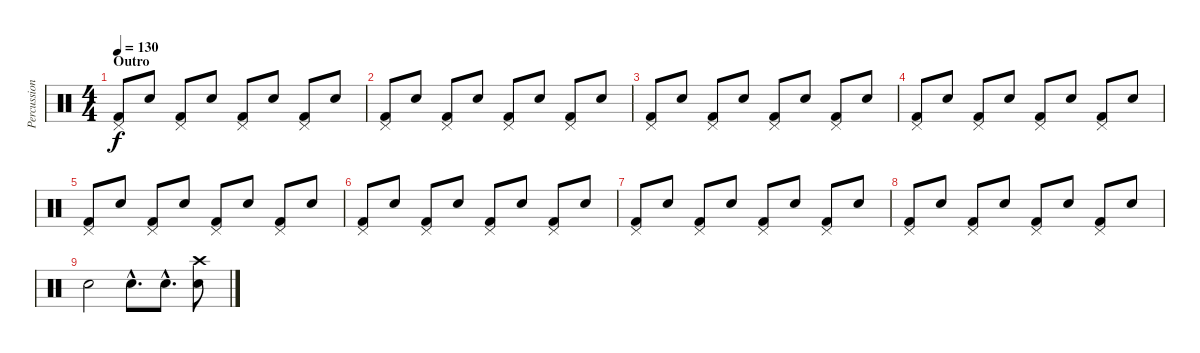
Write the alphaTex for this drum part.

\track ("Percussions" "Percussion") {instrument percussion}
\staff {score}
\articulation defaults
\ts (4 4)
\section ("" "Outro")
\tempo 130
\clef neutral
\ks c
("Pedal Hi-Hat (hit)" "Kick (hit) 2").8{dy f} "Snare (hit) 2".8 ("Pedal Hi-Hat (hit)" "Kick (hit) 2").8 "Snare (hit) 2".8 ("Pedal Hi-Hat (hit)" "Kick (hit) 2").8 "Snare (hit) 2".8 ("Pedal Hi-Hat (hit)" "Kick (hit) 2").8 "Snare (hit) 2".8 |
("Pedal Hi-Hat (hit)" "Kick (hit) 2").8 "Snare (hit) 2".8 ("Pedal Hi-Hat (hit)" "Kick (hit) 2").8 "Snare (hit) 2".8 ("Pedal Hi-Hat (hit)" "Kick (hit) 2").8 "Snare (hit) 2".8 ("Pedal Hi-Hat (hit)" "Kick (hit) 2").8 "Snare (hit) 2".8 |
("Pedal Hi-Hat (hit)" "Kick (hit) 2").8 "Snare (hit) 2".8 ("Pedal Hi-Hat (hit)" "Kick (hit) 2").8 "Snare (hit) 2".8 ("Pedal Hi-Hat (hit)" "Kick (hit) 2").8 "Snare (hit) 2".8 ("Pedal Hi-Hat (hit)" "Kick (hit) 2").8 "Snare (hit) 2".8 |
("Pedal Hi-Hat (hit)" "Kick (hit) 2").8 "Snare (hit) 2".8 ("Pedal Hi-Hat (hit)" "Kick (hit) 2").8 "Snare (hit) 2".8 ("Pedal Hi-Hat (hit)" "Kick (hit) 2").8 "Snare (hit) 2".8 ("Pedal Hi-Hat (hit)" "Kick (hit) 2").8 "Snare (hit) 2".8 |
("Pedal Hi-Hat (hit)" "Kick (hit) 2").8 "Snare (hit) 2".8 ("Pedal Hi-Hat (hit)" "Kick (hit) 2").8 "Snare (hit) 2".8 ("Pedal Hi-Hat (hit)" "Kick (hit) 2").8 "Snare (hit) 2".8 ("Pedal Hi-Hat (hit)" "Kick (hit) 2").8 "Snare (hit) 2".8 |
("Pedal Hi-Hat (hit)" "Kick (hit) 2").8 "Snare (hit) 2".8 ("Pedal Hi-Hat (hit)" "Kick (hit) 2").8 "Snare (hit) 2".8 ("Pedal Hi-Hat (hit)" "Kick (hit) 2").8 "Snare (hit) 2".8 ("Pedal Hi-Hat (hit)" "Kick (hit) 2").8 "Snare (hit) 2".8 |
("Pedal Hi-Hat (hit)" "Kick (hit) 2").8 "Snare (hit) 2".8 ("Pedal Hi-Hat (hit)" "Kick (hit) 2").8 "Snare (hit) 2".8 ("Pedal Hi-Hat (hit)" "Kick (hit) 2").8 "Snare (hit) 2".8 ("Pedal Hi-Hat (hit)" "Kick (hit) 2").8 "Snare (hit) 2".8 |
("Pedal Hi-Hat (hit)" "Kick (hit) 2").8 "Snare (hit) 2".8 ("Pedal Hi-Hat (hit)" "Kick (hit) 2").8 "Snare (hit) 2".8 ("Pedal Hi-Hat (hit)" "Kick (hit) 2").8 "Snare (hit) 2".8 ("Pedal Hi-Hat (hit)" "Kick (hit) 2").8 "Snare (hit) 2".8 |
"Snare (hit) 2".2 "Snare (hit) 2"{hac}.8{d} "Snare (hit) 2"{hac}.8{d} ("Crash high (hit)" "Snare (hit) 2").8
